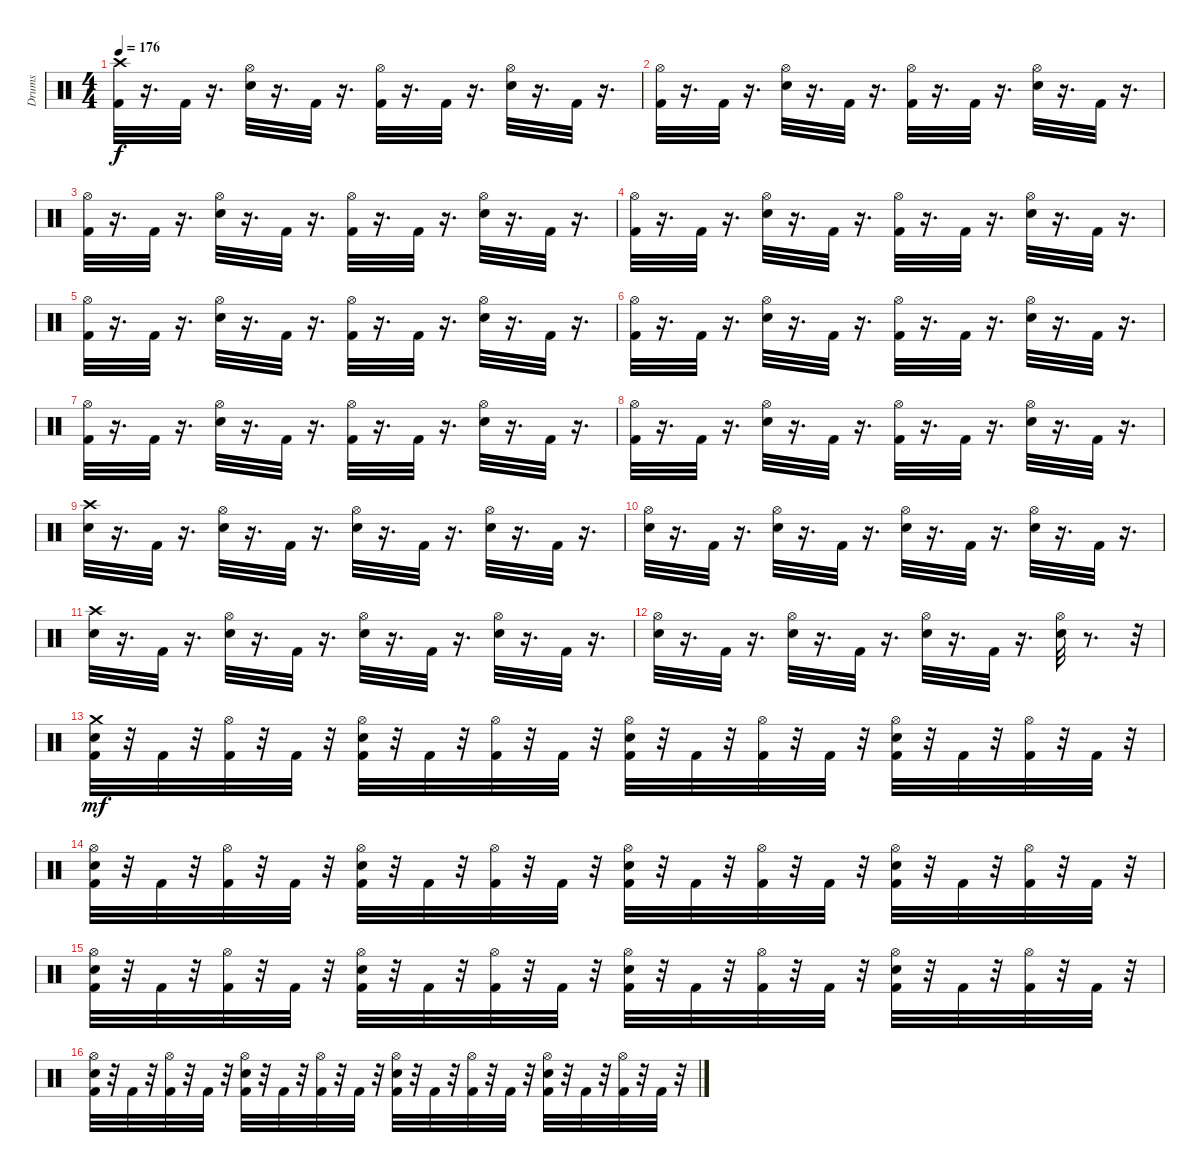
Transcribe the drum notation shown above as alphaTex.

\track ("Drums" "Drums") {instrument percussion}
\staff {score}
\articulation defaults
\ts (4 4)
\tempo 176
\clef neutral
\ks c
("Crash high (hit)" "Kick (hit) 2").32{dy f} r.16{d} "Kick (hit) 2".32 r.16{d} ("Hi-Hat (open)" "Snare (hit) 2").32 r.16{d} "Kick (hit) 2".32 r.16{d} ("Hi-Hat (open)" "Kick (hit) 2").32 r.16{d} "Kick (hit) 2".32 r.16{d} ("Hi-Hat (open)" "Snare (hit) 2").32 r.16{d} "Kick (hit) 2".32 r.16{d} |
("Hi-Hat (open)" "Kick (hit) 2").32 r.16{d} "Kick (hit) 2".32 r.16{d} ("Snare (hit) 2" "Hi-Hat (open)").32 r.16{d} "Kick (hit) 2".32 r.16{d} ("Kick (hit) 2" "Hi-Hat (open)").32 r.16{d} "Kick (hit) 2".32 r.16{d} ("Snare (hit) 2" "Hi-Hat (open)").32 r.16{d} "Kick (hit) 2".32 r.16{d} |
("Hi-Hat (open)" "Kick (hit) 2").32 r.16{d} "Kick (hit) 2".32 r.16{d} ("Snare (hit) 2" "Hi-Hat (open)").32 r.16{d} "Kick (hit) 2".32 r.16{d} ("Kick (hit) 2" "Hi-Hat (open)").32 r.16{d} "Kick (hit) 2".32 r.16{d} ("Snare (hit) 2" "Hi-Hat (open)").32 r.16{d} "Kick (hit) 2".32 r.16{d} |
("Hi-Hat (open)" "Kick (hit) 2").32 r.16{d} "Kick (hit) 2".32 r.16{d} ("Snare (hit) 2" "Hi-Hat (open)").32 r.16{d} "Kick (hit) 2".32 r.16{d} ("Kick (hit) 2" "Hi-Hat (open)").32 r.16{d} "Kick (hit) 2".32 r.16{d} ("Snare (hit) 2" "Hi-Hat (open)").32 r.16{d} "Kick (hit) 2".32 r.16{d} |
("Hi-Hat (open)" "Kick (hit) 2").32 r.16{d} "Kick (hit) 2".32 r.16{d} ("Snare (hit) 2" "Hi-Hat (open)").32 r.16{d} "Kick (hit) 2".32 r.16{d} ("Kick (hit) 2" "Hi-Hat (open)").32 r.16{d} "Kick (hit) 2".32 r.16{d} ("Snare (hit) 2" "Hi-Hat (open)").32 r.16{d} "Kick (hit) 2".32 r.16{d} |
("Hi-Hat (open)" "Kick (hit) 2").32 r.16{d} "Kick (hit) 2".32 r.16{d} ("Snare (hit) 2" "Hi-Hat (open)").32 r.16{d} "Kick (hit) 2".32 r.16{d} ("Kick (hit) 2" "Hi-Hat (open)").32 r.16{d} "Kick (hit) 2".32 r.16{d} ("Snare (hit) 2" "Hi-Hat (open)").32 r.16{d} "Kick (hit) 2".32 r.16{d} |
("Hi-Hat (open)" "Kick (hit) 2").32 r.16{d} "Kick (hit) 2".32 r.16{d} ("Snare (hit) 2" "Hi-Hat (open)").32 r.16{d} "Kick (hit) 2".32 r.16{d} ("Kick (hit) 2" "Hi-Hat (open)").32 r.16{d} "Kick (hit) 2".32 r.16{d} ("Snare (hit) 2" "Hi-Hat (open)").32 r.16{d} "Kick (hit) 2".32 r.16{d} |
("Hi-Hat (open)" "Kick (hit) 2").32 r.16{d} "Kick (hit) 2".32 r.16{d} ("Snare (hit) 2" "Hi-Hat (open)").32 r.16{d} "Kick (hit) 2".32 r.16{d} ("Kick (hit) 2" "Hi-Hat (open)").32 r.16{d} "Kick (hit) 2".32 r.16{d} ("Snare (hit) 2" "Hi-Hat (open)").32 r.16{d} "Kick (hit) 2".32 r.16{d} |
("Snare (hit) 2" "Crash high (hit)").32 r.16{d} "Kick (hit) 2".32 r.16{d} ("Snare (hit) 2" "Hi-Hat (open)").32 r.16{d} "Kick (hit) 2".32 r.16{d} ("Snare (hit) 2" "Hi-Hat (open)").32 r.16{d} "Kick (hit) 2".32 r.16{d} ("Snare (hit) 2" "Hi-Hat (open)").32 r.16{d} "Kick (hit) 2".32 r.16{d} |
("Snare (hit) 2" "Hi-Hat (open)").32 r.16{d} "Kick (hit) 2".32 r.16{d} ("Snare (hit) 2" "Hi-Hat (open)").32 r.16{d} "Kick (hit) 2".32 r.16{d} ("Snare (hit) 2" "Hi-Hat (open)").32 r.16{d} "Kick (hit) 2".32 r.16{d} ("Snare (hit) 2" "Hi-Hat (open)").32 r.16{d} "Kick (hit) 2".32 r.16{d} |
("Crash high (hit)" "Snare (hit) 2").32 r.16{d} "Kick (hit) 2".32 r.16{d} ("Snare (hit) 2" "Hi-Hat (open)").32 r.16{d} "Kick (hit) 2".32 r.16{d} ("Snare (hit) 2" "Hi-Hat (open)").32 r.16{d} "Kick (hit) 2".32 r.16{d} ("Snare (hit) 2" "Hi-Hat (open)").32 r.16{d} "Kick (hit) 2".32 r.16{d} |
("Hi-Hat (open)" "Snare (hit) 2").32 r.16{d} "Kick (hit) 2".32 r.16{d} ("Snare (hit) 2" "Hi-Hat (open)").32 r.16{d} "Kick (hit) 2".32 r.16{d} ("Snare (hit) 2" "Hi-Hat (open)").32 r.16{d} "Kick (hit) 2".32 r.16{d} ("Snare (hit) 2" "Hi-Hat (open)").32 r.8{d} r.32 |
("Snare (hit) 2" "Crash medium (hit)" "Kick (hit) 2").32{dy mf} r.32 "Kick (hit) 2".32 r.32 ("Hi-Hat (open)" "Kick (hit) 2").32 r.32 "Kick (hit) 2".32 r.32 ("Kick (hit) 2" "Snare (hit) 2" "Hi-Hat (open)").32 r.32 "Kick (hit) 2".32 r.32 ("Hi-Hat (open)" "Kick (hit) 2").32 r.32 "Kick (hit) 2".32 r.32 ("Snare (hit) 2" "Kick (hit) 2" "Hi-Hat (open)").32 r.32 "Kick (hit) 2".32 r.32 ("Hi-Hat (open)" "Kick (hit) 2").32 r.32 "Kick (hit) 2".32 r.32 ("Kick (hit) 2" "Snare (hit) 2" "Hi-Hat (open)").32 r.32 "Kick (hit) 2".32 r.32 ("Hi-Hat (open)" "Kick (hit) 2").32 r.32 "Kick (hit) 2".32 r.32 |
("Snare (hit) 2" "Hi-Hat (open)" "Kick (hit) 2").32 r.32 "Kick (hit) 2".32 r.32 ("Hi-Hat (open)" "Kick (hit) 2").32 r.32 "Kick (hit) 2".32 r.32 ("Kick (hit) 2" "Snare (hit) 2" "Hi-Hat (open)").32 r.32 "Kick (hit) 2".32 r.32 ("Hi-Hat (open)" "Kick (hit) 2").32 r.32 "Kick (hit) 2".32 r.32 ("Snare (hit) 2" "Kick (hit) 2" "Hi-Hat (open)").32 r.32 "Kick (hit) 2".32 r.32 ("Hi-Hat (open)" "Kick (hit) 2").32 r.32 "Kick (hit) 2".32 r.32 ("Kick (hit) 2" "Snare (hit) 2" "Hi-Hat (open)").32 r.32 "Kick (hit) 2".32 r.32 ("Hi-Hat (open)" "Kick (hit) 2").32 r.32 "Kick (hit) 2".32 r.32 |
("Snare (hit) 2" "Hi-Hat (open)" "Kick (hit) 2").32 r.32 "Kick (hit) 2".32 r.32 ("Hi-Hat (open)" "Kick (hit) 2").32 r.32 "Kick (hit) 2".32 r.32 ("Kick (hit) 2" "Snare (hit) 2" "Hi-Hat (open)").32 r.32 "Kick (hit) 2".32 r.32 ("Hi-Hat (open)" "Kick (hit) 2").32 r.32 "Kick (hit) 2".32 r.32 ("Snare (hit) 2" "Kick (hit) 2" "Hi-Hat (open)").32 r.32 "Kick (hit) 2".32 r.32 ("Hi-Hat (open)" "Kick (hit) 2").32 r.32 "Kick (hit) 2".32 r.32 ("Kick (hit) 2" "Snare (hit) 2" "Hi-Hat (open)").32 r.32 "Kick (hit) 2".32 r.32 ("Hi-Hat (open)" "Kick (hit) 2").32 r.32 "Kick (hit) 2".32 r.32 |
("Snare (hit) 2" "Hi-Hat (open)" "Kick (hit) 2").32 r.32 "Kick (hit) 2".32 r.32 ("Hi-Hat (open)" "Kick (hit) 2").32 r.32 "Kick (hit) 2".32 r.32 ("Kick (hit) 2" "Snare (hit) 2" "Hi-Hat (open)").32 r.32 "Kick (hit) 2".32 r.32 ("Hi-Hat (open)" "Kick (hit) 2").32 r.32 "Kick (hit) 2".32 r.32 ("Snare (hit) 2" "Kick (hit) 2" "Hi-Hat (open)").32 r.32 "Kick (hit) 2".32 r.32 ("Hi-Hat (open)" "Kick (hit) 2").32 r.32 "Kick (hit) 2".32 r.32 ("Kick (hit) 2" "Snare (hit) 2" "Hi-Hat (open)").32 r.32 "Kick (hit) 2".32 r.32 ("Hi-Hat (open)" "Kick (hit) 2").32 r.32 "Kick (hit) 2".32 r.32
